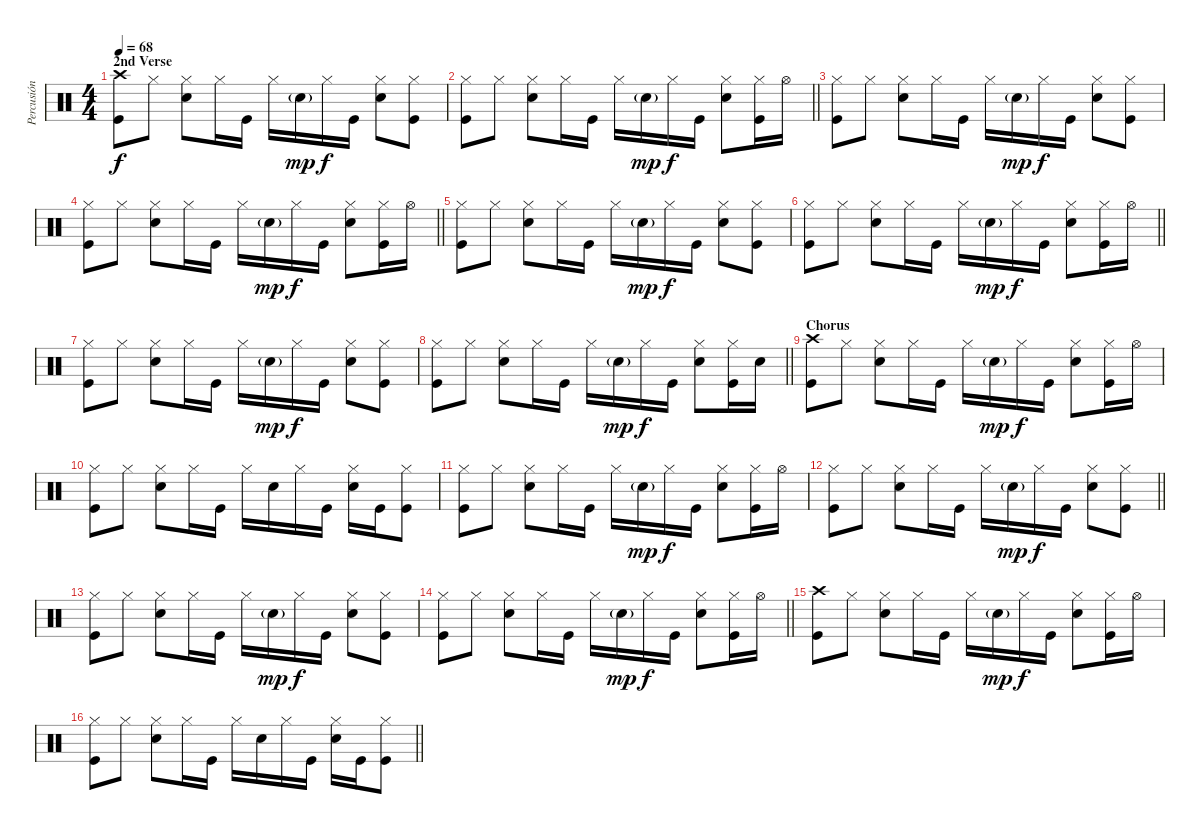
\track ("Percusión" "Percusión") {instrument percussion}
\staff {score}
\articulation defaults
\ts (4 4)
\section ("" "2nd Verse")
\tempo 68
\clef neutral
\ks c
("Crash high (hit)" "Kick (hit)").8{dy f} "Hi-Hat (closed)".8 ("Hi-Hat (closed)" "Snare (hit) 2").8 "Hi-Hat (closed)".16 "Kick (hit)".16 "Hi-Hat (closed)".16 "Snare (hit) 2"{g}.16{dy mp} "Hi-Hat (closed)".16{dy f} "Kick (hit)".16 ("Hi-Hat (closed)" "Snare (hit) 2").8 ("Hi-Hat (closed)" "Kick (hit)").8 |
\barLineRight lightlight
("Hi-Hat (closed)" "Kick (hit)").8 "Hi-Hat (closed)".8 ("Hi-Hat (closed)" "Snare (hit) 2").8 "Hi-Hat (closed)".16 "Kick (hit)".16 "Hi-Hat (closed)".16 "Snare (hit) 2"{g}.16{dy mp} "Hi-Hat (closed)".16{dy f} "Kick (hit)".16 ("Hi-Hat (closed)" "Snare (hit) 2").8 ("Hi-Hat (closed)" "Kick (hit)").16 "Hi-Hat (open)".16 |
("Hi-Hat (closed)" "Kick (hit)").8 "Hi-Hat (closed)".8 ("Hi-Hat (closed)" "Snare (hit) 2").8 "Hi-Hat (closed)".16 "Kick (hit)".16 "Hi-Hat (closed)".16 "Snare (hit) 2"{g}.16{dy mp} "Hi-Hat (closed)".16{dy f} "Kick (hit)".16 ("Hi-Hat (closed)" "Snare (hit) 2").8 ("Hi-Hat (closed)" "Kick (hit)").8 |
\barLineRight lightlight
("Hi-Hat (closed)" "Kick (hit)").8 "Hi-Hat (closed)".8 ("Hi-Hat (closed)" "Snare (hit) 2").8 "Hi-Hat (closed)".16 "Kick (hit)".16 "Hi-Hat (closed)".16 "Snare (hit) 2"{g}.16{dy mp} "Hi-Hat (closed)".16{dy f} "Kick (hit)".16 ("Hi-Hat (closed)" "Snare (hit) 2").8 ("Hi-Hat (closed)" "Kick (hit)").16 "Hi-Hat (open)".16 |
("Hi-Hat (closed)" "Kick (hit)").8 "Hi-Hat (closed)".8 ("Hi-Hat (closed)" "Snare (hit) 2").8 "Hi-Hat (closed)".16 "Kick (hit)".16 "Hi-Hat (closed)".16 "Snare (hit) 2"{g}.16{dy mp} "Hi-Hat (closed)".16{dy f} "Kick (hit)".16 ("Hi-Hat (closed)" "Snare (hit) 2").8 ("Hi-Hat (closed)" "Kick (hit)").8 |
\barLineRight lightlight
("Hi-Hat (closed)" "Kick (hit)").8 "Hi-Hat (closed)".8 ("Hi-Hat (closed)" "Snare (hit) 2").8 "Hi-Hat (closed)".16 "Kick (hit)".16 "Hi-Hat (closed)".16 "Snare (hit) 2"{g}.16{dy mp} "Hi-Hat (closed)".16{dy f} "Kick (hit)".16 ("Hi-Hat (closed)" "Snare (hit) 2").8 ("Hi-Hat (closed)" "Kick (hit)").16 "Hi-Hat (open)".16 |
("Hi-Hat (closed)" "Kick (hit)").8 "Hi-Hat (closed)".8 ("Hi-Hat (closed)" "Snare (hit) 2").8 "Hi-Hat (closed)".16 "Kick (hit)".16 "Hi-Hat (closed)".16 "Snare (hit) 2"{g}.16{dy mp} "Hi-Hat (closed)".16{dy f} "Kick (hit)".16 ("Hi-Hat (closed)" "Snare (hit) 2").8 ("Hi-Hat (closed)" "Kick (hit)").8 |
\barLineRight lightlight
("Hi-Hat (closed)" "Kick (hit)").8 "Hi-Hat (closed)".8 ("Hi-Hat (closed)" "Snare (hit) 2").8 "Hi-Hat (closed)".16 "Kick (hit)".16 "Hi-Hat (closed)".16 "Snare (hit) 2"{g}.16{dy mp} "Hi-Hat (closed)".16{dy f} "Kick (hit)".16 ("Hi-Hat (closed)" "Snare (hit) 2").8 ("Hi-Hat (closed)" "Kick (hit)").16 "Snare (hit) 2".16 |
\section ("" "Chorus")
("Crash high (hit)" "Kick (hit)").8 "Hi-Hat (closed)".8 ("Hi-Hat (closed)" "Snare (hit) 2").8 "Hi-Hat (closed)".16 "Kick (hit)".16 "Hi-Hat (closed)".16 "Snare (hit) 2"{g}.16{dy mp} "Hi-Hat (closed)".16{dy f} "Kick (hit)".16 ("Hi-Hat (closed)" "Snare (hit) 2").8 ("Hi-Hat (closed)" "Kick (hit)").16 "Hi-Hat (open)".16 |
("Hi-Hat (closed)" "Kick (hit)").8 "Hi-Hat (closed)".8 ("Hi-Hat (closed)" "Snare (hit) 2").8 "Hi-Hat (closed)".16 "Kick (hit)".16 "Hi-Hat (closed)".16 "Snare (hit) 2".16 "Hi-Hat (closed)".16 "Kick (hit)".16 ("Hi-Hat (closed)" "Snare (hit) 2").16 "Kick (hit)".16 ("Hi-Hat (closed)" "Kick (hit)").8 |
("Hi-Hat (closed)" "Kick (hit)").8 "Hi-Hat (closed)".8 ("Hi-Hat (closed)" "Snare (hit) 2").8 "Hi-Hat (closed)".16 "Kick (hit)".16 "Hi-Hat (closed)".16 "Snare (hit) 2"{g}.16{dy mp} "Hi-Hat (closed)".16{dy f} "Kick (hit)".16 ("Hi-Hat (closed)" "Snare (hit) 2").8 ("Hi-Hat (closed)" "Kick (hit)").16 "Hi-Hat (open)".16 |
\barLineRight lightlight
("Hi-Hat (closed)" "Kick (hit)").8 "Hi-Hat (closed)".8 ("Hi-Hat (closed)" "Snare (hit) 2").8 "Hi-Hat (closed)".16 "Kick (hit)".16 "Hi-Hat (closed)".16 "Snare (hit) 2"{g}.16{dy mp} "Hi-Hat (closed)".16{dy f} "Kick (hit)".16 ("Hi-Hat (closed)" "Snare (hit) 2").8 ("Hi-Hat (closed)" "Kick (hit)").8 |
("Hi-Hat (closed)" "Kick (hit)").8 "Hi-Hat (closed)".8 ("Hi-Hat (closed)" "Snare (hit) 2").8 "Hi-Hat (closed)".16 "Kick (hit)".16 "Hi-Hat (closed)".16 "Snare (hit) 2"{g}.16{dy mp} "Hi-Hat (closed)".16{dy f} "Kick (hit)".16 ("Hi-Hat (closed)" "Snare (hit) 2").8 ("Hi-Hat (closed)" "Kick (hit)").8 |
\barLineRight lightlight
("Hi-Hat (closed)" "Kick (hit)").8 "Hi-Hat (closed)".8 ("Hi-Hat (closed)" "Snare (hit) 2").8 "Hi-Hat (closed)".16 "Kick (hit)".16 "Hi-Hat (closed)".16 "Snare (hit) 2"{g}.16{dy mp} "Hi-Hat (closed)".16{dy f} "Kick (hit)".16 ("Hi-Hat (closed)" "Snare (hit) 2").8 ("Hi-Hat (closed)" "Kick (hit)").16 "Hi-Hat (open)".16 |
("Crash high (hit)" "Kick (hit)").8 "Hi-Hat (closed)".8 ("Hi-Hat (closed)" "Snare (hit) 2").8 "Hi-Hat (closed)".16 "Kick (hit)".16 "Hi-Hat (closed)".16 "Snare (hit) 2"{g}.16{dy mp} "Hi-Hat (closed)".16{dy f} "Kick (hit)".16 ("Hi-Hat (closed)" "Snare (hit) 2").8 ("Hi-Hat (closed)" "Kick (hit)").16 "Hi-Hat (open)".16 |
\barLineRight lightlight
("Hi-Hat (closed)" "Kick (hit)").8 "Hi-Hat (closed)".8 ("Hi-Hat (closed)" "Snare (hit) 2").8 "Hi-Hat (closed)".16 "Kick (hit)".16 "Hi-Hat (closed)".16 "Snare (hit) 2".16 "Hi-Hat (closed)".16 "Kick (hit)".16 ("Hi-Hat (closed)" "Snare (hit) 2").16 "Kick (hit)".16 ("Hi-Hat (closed)" "Kick (hit)").8
